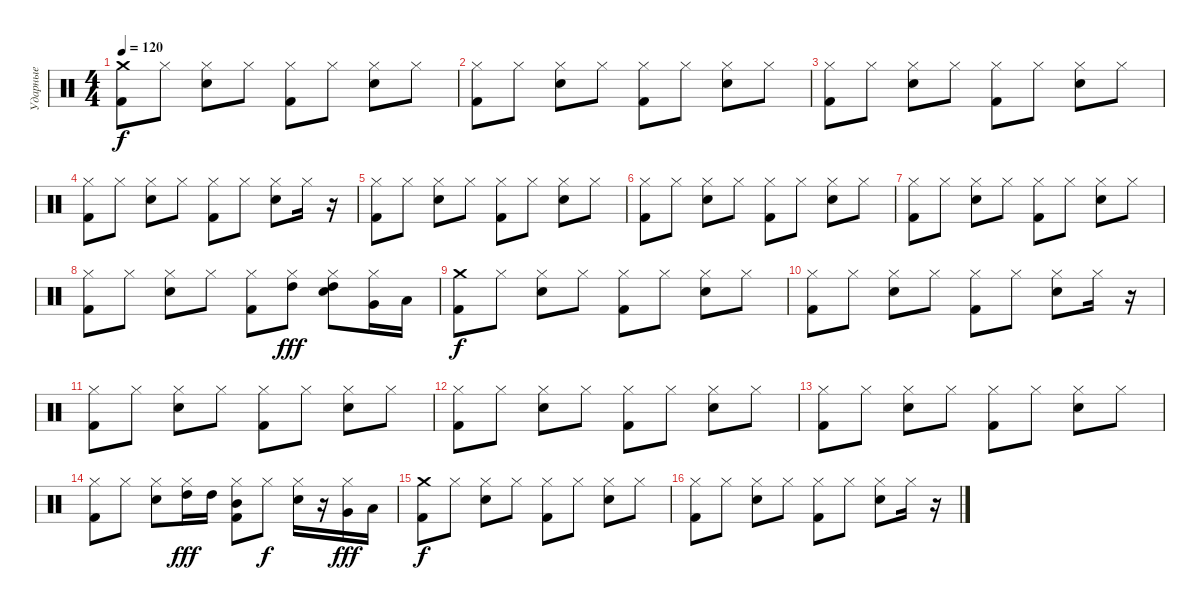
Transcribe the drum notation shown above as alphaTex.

\track ("Ударные" "Ударные") {instrument percussion}
\staff {score}
\articulation defaults
\ts (4 4)
\tempo 120
\clef neutral
\ks c
("Kick (hit) 2" "Crash medium (hit)").8{dy f} "Hi-Hat (closed)".8 ("Electric Snare (hit)" "Hi-Hat (closed)").8 "Hi-Hat (closed)".8 ("Kick (hit) 2" "Hi-Hat (closed)").8 "Hi-Hat (closed)".8 ("Electric Snare (hit)" "Hi-Hat (closed)").8 "Hi-Hat (closed)".8 |
("Kick (hit) 2" "Hi-Hat (closed)").8 "Hi-Hat (closed)".8 ("Electric Snare (hit)" "Hi-Hat (closed)").8 "Hi-Hat (closed)".8 ("Kick (hit) 2" "Hi-Hat (closed)").8 "Hi-Hat (closed)".8 ("Electric Snare (hit)" "Hi-Hat (closed)").8 "Hi-Hat (closed)".8 |
("Kick (hit) 2" "Hi-Hat (closed)").8 "Hi-Hat (closed)".8 ("Electric Snare (hit)" "Hi-Hat (closed)").8 "Hi-Hat (closed)".8 ("Kick (hit) 2" "Hi-Hat (closed)").8 "Hi-Hat (closed)".8 ("Electric Snare (hit)" "Hi-Hat (closed)").8 "Hi-Hat (closed)".8 |
("Kick (hit) 2" "Hi-Hat (closed)").8 "Hi-Hat (closed)".8 ("Electric Snare (hit)" "Hi-Hat (closed)").8 "Hi-Hat (closed)".8 ("Kick (hit) 2" "Hi-Hat (closed)").8 "Hi-Hat (closed)".8 ("Electric Snare (hit)" "Hi-Hat (closed)").8 "Hi-Hat (closed)".16 r.16 |
("Kick (hit) 2" "Hi-Hat (closed)").8 "Hi-Hat (closed)".8 ("Electric Snare (hit)" "Hi-Hat (closed)").8 "Hi-Hat (closed)".8 ("Kick (hit) 2" "Hi-Hat (closed)").8 "Hi-Hat (closed)".8 ("Electric Snare (hit)" "Hi-Hat (closed)").8 "Hi-Hat (closed)".8 |
("Kick (hit) 2" "Hi-Hat (closed)").8 "Hi-Hat (closed)".8 ("Electric Snare (hit)" "Hi-Hat (closed)").8 "Hi-Hat (closed)".8 ("Kick (hit) 2" "Hi-Hat (closed)").8 "Hi-Hat (closed)".8 ("Electric Snare (hit)" "Hi-Hat (closed)").8 "Hi-Hat (closed)".8 |
("Kick (hit) 2" "Hi-Hat (closed)").8 "Hi-Hat (closed)".8 ("Electric Snare (hit)" "Hi-Hat (closed)").8 "Hi-Hat (closed)".8 ("Kick (hit) 2" "Hi-Hat (closed)").8 "Hi-Hat (closed)".8 ("Electric Snare (hit)" "Hi-Hat (closed)").8 "Hi-Hat (closed)".8 |
("Kick (hit) 2" "Hi-Hat (closed)").8 "Hi-Hat (closed)".8 ("Electric Snare (hit)" "Hi-Hat (closed)").8 "Hi-Hat (closed)".8 ("Kick (hit) 2" "Hi-Hat (closed)").8 ("Hi-Hat (closed)" "High Tom (hit)").8{dy fff} ("Electric Snare (hit)" "Hi-Hat (closed)" "High Tom (hit)").8 ("Hi-Hat (closed)" "Very Low Tom (hit)").16 "Low Floor Tom (hit)".16 |
("Kick (hit) 2" "Crash medium (hit)").8{dy f} "Hi-Hat (closed)".8 ("Electric Snare (hit)" "Hi-Hat (closed)").8 "Hi-Hat (closed)".8 ("Kick (hit) 2" "Hi-Hat (closed)").8 "Hi-Hat (closed)".8 ("Electric Snare (hit)" "Hi-Hat (closed)").8 "Hi-Hat (closed)".8 |
("Kick (hit) 2" "Hi-Hat (closed)").8 "Hi-Hat (closed)".8 ("Electric Snare (hit)" "Hi-Hat (closed)").8 "Hi-Hat (closed)".8 ("Kick (hit) 2" "Hi-Hat (closed)").8 "Hi-Hat (closed)".8 ("Electric Snare (hit)" "Hi-Hat (closed)").8 "Hi-Hat (closed)".16 r.16 |
("Kick (hit) 2" "Hi-Hat (closed)").8 "Hi-Hat (closed)".8 ("Electric Snare (hit)" "Hi-Hat (closed)").8 "Hi-Hat (closed)".8 ("Kick (hit) 2" "Hi-Hat (closed)").8 "Hi-Hat (closed)".8 ("Electric Snare (hit)" "Hi-Hat (closed)").8 "Hi-Hat (closed)".8 |
("Kick (hit) 2" "Hi-Hat (closed)").8 "Hi-Hat (closed)".8 ("Electric Snare (hit)" "Hi-Hat (closed)").8 "Hi-Hat (closed)".8 ("Kick (hit) 2" "Hi-Hat (closed)").8 "Hi-Hat (closed)".8 ("Electric Snare (hit)" "Hi-Hat (closed)").8 "Hi-Hat (closed)".8 |
("Kick (hit) 2" "Hi-Hat (closed)").8 "Hi-Hat (closed)".8 ("Electric Snare (hit)" "Hi-Hat (closed)").8 "Hi-Hat (closed)".8 ("Kick (hit) 2" "Hi-Hat (closed)").8 "Hi-Hat (closed)".8 ("Electric Snare (hit)" "Hi-Hat (closed)").8 "Hi-Hat (closed)".8 |
("Hi-Hat (closed)" "Kick (hit) 2").8 "Hi-Hat (closed)".8 ("Hi-Hat (closed)" "Electric Snare (hit)").8 ("High Tom (hit)" "Hi-Hat (closed)").16{dy fff} "High Tom (hit)".16 ("Mid Tom (hit)" "Hi-Hat (closed)" "Kick (hit) 2").8 "Hi-Hat (closed)".8{dy f} ("Hi-Hat (closed)" "Electric Snare (hit)").16 r.16 ("Very Low Tom (hit)" "Hi-Hat (closed)").16{dy fff} "Low Floor Tom (hit)".16 |
("Kick (hit) 2" "Crash medium (hit)").8{dy f} "Hi-Hat (closed)".8 ("Electric Snare (hit)" "Hi-Hat (closed)").8 "Hi-Hat (closed)".8 ("Kick (hit) 2" "Hi-Hat (closed)").8 "Hi-Hat (closed)".8 ("Electric Snare (hit)" "Hi-Hat (closed)").8 "Hi-Hat (closed)".8 |
("Kick (hit) 2" "Hi-Hat (closed)").8 "Hi-Hat (closed)".8 ("Electric Snare (hit)" "Hi-Hat (closed)").8 "Hi-Hat (closed)".8 ("Kick (hit) 2" "Hi-Hat (closed)").8 "Hi-Hat (closed)".8 ("Electric Snare (hit)" "Hi-Hat (closed)").8 "Hi-Hat (closed)".16 r.16
